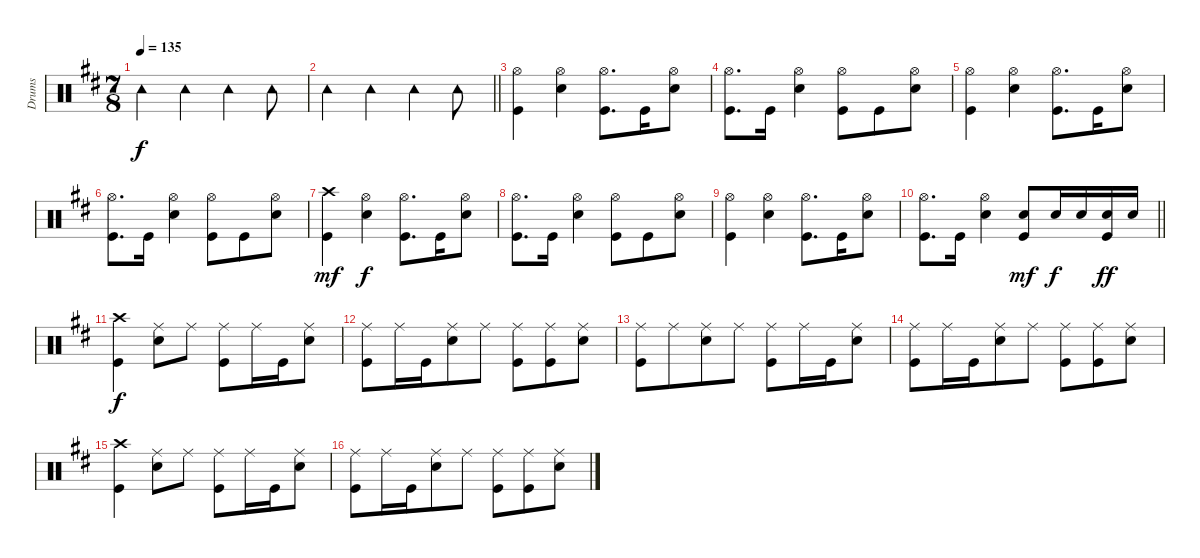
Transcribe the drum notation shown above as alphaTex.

\track ("Drums" "Drums") {instrument percussion}
\staff {score}
\articulation defaults
\ts (7 8)
\tempo 135
\clef neutral
\ks d "Tambourine (hit)".4{dy f} "Tambourine (hit)".4 "Tambourine (hit)".4 "Tambourine (hit)".8
|
\barLineRight lightlight "Tambourine (hit)".4 "Tambourine (hit)".4 "Tambourine (hit)".4 "Tambourine (hit)".8
|
("Hi-Hat (open)" "Kick (hit)").4 ("Hi-Hat (open)" "Snare (hit) 2").4 ("Hi-Hat (open)" "Kick (hit)").8{d} "Kick (hit)".16 ("Hi-Hat (open)" "Snare (hit) 2").8 |
("Hi-Hat (open)" "Kick (hit)").8{d} "Kick (hit)".16 ("Hi-Hat (open)" "Snare (hit) 2").4 ("Hi-Hat (open)" "Kick (hit)").8 "Kick (hit)".8 ("Hi-Hat (open)" "Snare (hit) 2").8 |
("Hi-Hat (open)" "Kick (hit)").4 ("Hi-Hat (open)" "Snare (hit) 2").4 ("Hi-Hat (open)" "Kick (hit)").8{d} "Kick (hit)".16 ("Hi-Hat (open)" "Snare (hit) 2").8 |
("Hi-Hat (open)" "Kick (hit)").8{d} "Kick (hit)".16 ("Hi-Hat (open)" "Snare (hit) 2").4 ("Hi-Hat (open)" "Kick (hit)").8 "Kick (hit)".8 ("Hi-Hat (open)" "Snare (hit) 2").8 |
("Crash high (hit)" "Kick (hit)").4{dy mf} ("Hi-Hat (open)" "Snare (hit) 2").4{dy f} ("Hi-Hat (open)" "Kick (hit)").8{d} "Kick (hit)".16 ("Hi-Hat (open)" "Snare (hit) 2").8 |
("Hi-Hat (open)" "Kick (hit)").8{d} "Kick (hit)".16 ("Hi-Hat (open)" "Snare (hit) 2").4 ("Hi-Hat (open)" "Kick (hit)").8 "Kick (hit)".8 ("Hi-Hat (open)" "Snare (hit) 2").8 |
("Hi-Hat (open)" "Kick (hit)").4 ("Hi-Hat (open)" "Snare (hit) 2").4 ("Hi-Hat (open)" "Kick (hit)").8{d} "Kick (hit)".16 ("Hi-Hat (open)" "Snare (hit) 2").8 |
\barLineRight lightlight
("Hi-Hat (open)" "Kick (hit)").8{d} "Kick (hit)".16 ("Hi-Hat (open)" "Snare (hit) 2").4 ("Snare (hit) 2" "Kick (hit)").8{dy mf} "Snare (hit) 2".16{dy f} "Snare (hit) 2".16 ("Snare (hit) 2" "Kick (hit)").16{dy ff} "Snare (hit) 2".16 |
("Crash high (hit)" "Kick (hit)").4{dy f} ("Ride (middle)" "Snare (hit) 2").8 "Ride (middle)".8 ("Ride (middle)" "Kick (hit)").8 "Ride (middle)".16 "Kick (hit)".16 ("Ride (middle)" "Snare (hit) 2").8 |
("Ride (middle)" "Kick (hit)").8 "Ride (middle)".16 "Kick (hit)".16 ("Ride (middle)" "Snare (hit) 2").8 "Ride (middle)".8 ("Ride (middle)" "Kick (hit)").8 ("Ride (middle)" "Kick (hit)").8 ("Ride (middle)" "Snare (hit) 2").8 |
("Ride (middle)" "Kick (hit)").8 "Ride (middle)".8 ("Ride (middle)" "Snare (hit) 2").8 "Ride (middle)".8 ("Ride (middle)" "Kick (hit)").8 "Ride (middle)".16 "Kick (hit)".16 ("Ride (middle)" "Snare (hit) 2").8 |
("Ride (middle)" "Kick (hit)").8 "Ride (middle)".16 "Kick (hit)".16 ("Ride (middle)" "Snare (hit) 2").8 "Ride (middle)".8 ("Ride (middle)" "Kick (hit)").8 ("Ride (middle)" "Kick (hit)").8 ("Ride (middle)" "Snare (hit) 2").8 |
("Crash high (hit)" "Kick (hit)").4 ("Ride (middle)" "Snare (hit) 2").8 "Ride (middle)".8 ("Ride (middle)" "Kick (hit)").8 "Ride (middle)".16 "Kick (hit)".16 ("Ride (middle)" "Snare (hit) 2").8 |
("Ride (middle)" "Kick (hit)").8 "Ride (middle)".16 "Kick (hit)".16 ("Ride (middle)" "Snare (hit) 2").8 "Ride (middle)".8 ("Ride (middle)" "Kick (hit)").8 ("Ride (middle)" "Kick (hit)").8 ("Ride (middle)" "Snare (hit) 2").8
